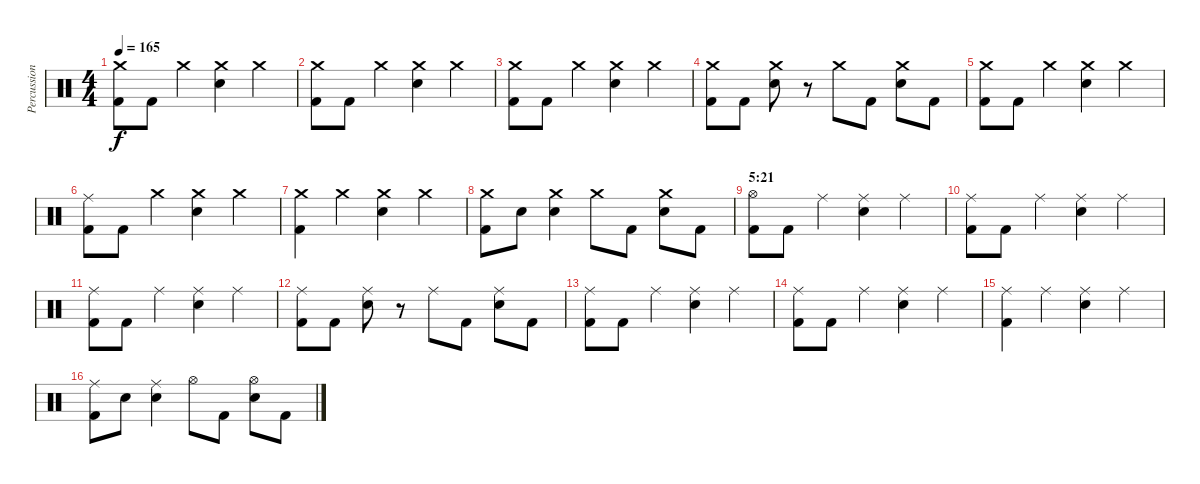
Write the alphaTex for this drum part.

\track ("Percussion" "Percussion") {instrument percussion}
\staff {score}
\articulation defaults
\ts (4 4)
\tempo 165
\clef neutral
\ks c
("Crash medium (hit)" "Kick (hit) 2").8{dy f} "Kick (hit) 2".8 "Crash medium (hit)".4 ("Crash medium (hit)" "Electric Snare (hit)").4 "Crash medium (hit)".4 |
("Crash medium (hit)" "Kick (hit) 2").8 "Kick (hit) 2".8 "Crash medium (hit)".4 ("Crash medium (hit)" "Electric Snare (hit)").4 "Crash medium (hit)".4 |
("Crash medium (hit)" "Kick (hit) 2").8 "Kick (hit) 2".8 "Crash medium (hit)".4 ("Crash medium (hit)" "Electric Snare (hit)").4 "Crash medium (hit)".4 |
("Crash medium (hit)" "Kick (hit) 2").8 "Kick (hit) 2".8 ("Crash medium (hit)" "Electric Snare (hit)").8 r.8 "Crash medium (hit)".8 "Kick (hit) 2".8 ("Crash medium (hit)" "Electric Snare (hit)").8 "Kick (hit) 2".8 |
("Crash medium (hit)" "Kick (hit) 2").8 "Kick (hit) 2".8 "Crash medium (hit)".4 ("Crash medium (hit)" "Electric Snare (hit)").4 "Crash medium (hit)".4 |
("Ride (middle)" "Kick (hit) 2").8 "Kick (hit) 2".8 "Crash medium (hit)".4 ("Crash medium (hit)" "Electric Snare (hit)").4 "Crash medium (hit)".4 |
("Crash medium (hit)" "Kick (hit) 2").4 "Crash medium (hit)".4 ("Crash medium (hit)" "Electric Snare (hit)").4 "Crash medium (hit)".4 |
("Crash medium (hit)" "Kick (hit) 2").8 "Electric Snare (hit)".8 ("Crash medium (hit)" "Electric Snare (hit)").4 "Crash medium (hit)".8 "Kick (hit) 2".8 ("Crash medium (hit)" "Electric Snare (hit)").8 "Kick (hit) 2".8 |
\section ("" "5:21")
("Hi-Hat (open)" "Kick (hit) 2").8 "Kick (hit) 2".8 "Ride (middle)".4 ("Ride (middle)" "Electric Snare (hit)").4 "Ride (middle)".4 |
("Ride (middle)" "Kick (hit) 2").8 "Kick (hit) 2".8 "Ride (middle)".4 ("Ride (middle)" "Electric Snare (hit)").4 "Ride (middle)".4 |
("Ride (middle)" "Kick (hit) 2").8 "Kick (hit) 2".8 "Ride (middle)".4 ("Ride (middle)" "Electric Snare (hit)").4 "Ride (middle)".4 |
("Ride (middle)" "Kick (hit) 2").8 "Kick (hit) 2".8 ("Ride (middle)" "Electric Snare (hit)").8 r.8 "Ride (middle)".8 "Kick (hit) 2".8 ("Ride (middle)" "Electric Snare (hit)").8 "Kick (hit) 2".8 |
("Ride (middle)" "Kick (hit) 2").8 "Kick (hit) 2".8 "Ride (middle)".4 ("Ride (middle)" "Electric Snare (hit)").4 "Ride (middle)".4 |
("Ride (middle)" "Kick (hit) 2").8 "Kick (hit) 2".8 "Ride (middle)".4 ("Ride (middle)" "Electric Snare (hit)").4 "Ride (middle)".4 |
("Ride (middle)" "Kick (hit) 2").4 "Ride (middle)".4 ("Ride (middle)" "Electric Snare (hit)").4 "Ride (middle)".4 |
("Ride (middle)" "Kick (hit) 2").8 "Electric Snare (hit)".8 ("Ride (middle)" "Electric Snare (hit)").4 "Hi-Hat (open)".8 "Kick (hit) 2".8 ("Hi-Hat (open)" "Electric Snare (hit)").8 "Kick (hit) 2".8
